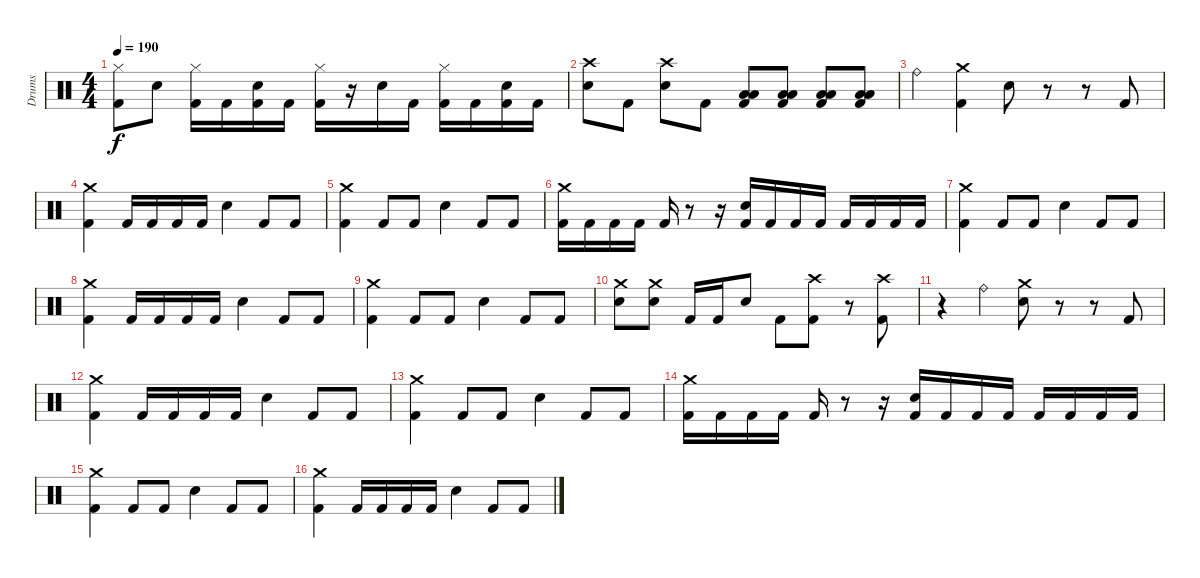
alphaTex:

\track ("Drums" "Drums") {instrument percussion}
\staff {score}
\articulation defaults
\ts (4 4)
\tempo 190
\clef neutral
\ks c
("Hi-Hat (closed)" "Kick (hit) 2").8{dy f} "Snare (hit) 2".8 ("Hi-Hat (closed)" "Kick (hit) 2").16 "Kick (hit) 2".16 ("Snare (hit) 2" "Kick (hit) 2").16 "Kick (hit) 2".16 ("Hi-Hat (closed)" "Kick (hit) 2").16 r.16 "Snare (hit) 2".16 "Kick (hit) 2".16 ("Hi-Hat (closed)" "Kick (hit) 2").16 "Kick (hit) 2".16 ("Snare (hit) 2" "Kick (hit) 2").16 "Kick (hit) 2".16 |
("Crash high (hit)" "Snare (hit) 2").8 "Kick (hit) 2".8 ("Crash high (hit)" "Snare (hit) 2").8 "Kick (hit) 2".8 ("Low Floor Tom (hit)" "Low Tom (hit)" "Kick (hit) 2").8 ("Low Floor Tom (hit)" "Low Tom (hit)" "Kick (hit) 2").8 ("Low Floor Tom (hit)" "Low Tom (hit)" "Kick (hit) 2").8 ("Low Floor Tom (hit)" "Low Tom (hit)" "Kick (hit) 2").8 |
"Ride (bell)".4 ("Crash medium (hit)" "Kick (hit) 2").4 "Snare (hit) 2".8 r.8 r.8 "Kick (hit) 2".8 |
("Crash medium (hit)" "Kick (hit) 2").4 "Kick (hit) 2".16 "Kick (hit) 2".16 "Kick (hit) 2".16 "Kick (hit) 2".16 "Snare (hit) 2".4 "Kick (hit) 2".8 "Kick (hit) 2".8 |
("Crash medium (hit)" "Kick (hit) 2").4 "Kick (hit) 2".8 "Kick (hit) 2".8 "Snare (hit) 2".4 "Kick (hit) 2".8 "Kick (hit) 2".8 |
("Crash medium (hit)" "Kick (hit) 2").16 "Kick (hit) 2".16 "Kick (hit) 2".16 "Kick (hit) 2".16 "Kick (hit) 2".16 r.8 r.16 ("Snare (hit) 2" "Kick (hit) 2").16 "Kick (hit) 2".16 "Kick (hit) 2".16 "Kick (hit) 2".16 "Kick (hit) 2".16 "Kick (hit) 2".16 "Kick (hit) 2".16 "Kick (hit) 2".16 |
("Crash medium (hit)" "Kick (hit) 2").4 "Kick (hit) 2".8 "Kick (hit) 2".8 "Snare (hit) 2".4 "Kick (hit) 2".8 "Kick (hit) 2".8 |
("Crash medium (hit)" "Kick (hit) 2").4 "Kick (hit) 2".16 "Kick (hit) 2".16 "Kick (hit) 2".16 "Kick (hit) 2".16 "Snare (hit) 2".4 "Kick (hit) 2".8 "Kick (hit) 2".8 |
("Crash medium (hit)" "Kick (hit) 2").4 "Kick (hit) 2".8 "Kick (hit) 2".8 "Snare (hit) 2".4 "Kick (hit) 2".8 "Kick (hit) 2".8 |
("Crash medium (hit)" "Snare (hit) 2").8 ("Crash medium (hit)" "Snare (hit) 2").8 "Kick (hit) 2".16 "Kick (hit) 2".16 "Snare (hit) 2".8 "Kick (hit) 2".8 ("Crash high (hit)" "Kick (hit) 2").8 r.8 ("Crash high (hit)" "Kick (hit) 2").8 |
r.4 "Ride (bell)".4 ("Crash medium (hit)" "Snare (hit) 2").8 r.8 r.8 "Kick (hit) 2".8 |
("Crash medium (hit)" "Kick (hit) 2").4 "Kick (hit) 2".16 "Kick (hit) 2".16 "Kick (hit) 2".16 "Kick (hit) 2".16 "Snare (hit) 2".4 "Kick (hit) 2".8 "Kick (hit) 2".8 |
("Crash medium (hit)" "Kick (hit) 2").4 "Kick (hit) 2".8 "Kick (hit) 2".8 "Snare (hit) 2".4 "Kick (hit) 2".8 "Kick (hit) 2".8 |
("Crash medium (hit)" "Kick (hit) 2").16 "Kick (hit) 2".16 "Kick (hit) 2".16 "Kick (hit) 2".16 "Kick (hit) 2".16 r.8 r.16 ("Snare (hit) 2" "Kick (hit) 2").16 "Kick (hit) 2".16 "Kick (hit) 2".16 "Kick (hit) 2".16 "Kick (hit) 2".16 "Kick (hit) 2".16 "Kick (hit) 2".16 "Kick (hit) 2".16 |
("Crash medium (hit)" "Kick (hit) 2").4 "Kick (hit) 2".8 "Kick (hit) 2".8 "Snare (hit) 2".4 "Kick (hit) 2".8 "Kick (hit) 2".8 |
("Crash medium (hit)" "Kick (hit) 2").4 "Kick (hit) 2".16 "Kick (hit) 2".16 "Kick (hit) 2".16 "Kick (hit) 2".16 "Snare (hit) 2".4 "Kick (hit) 2".8 "Kick (hit) 2".8
